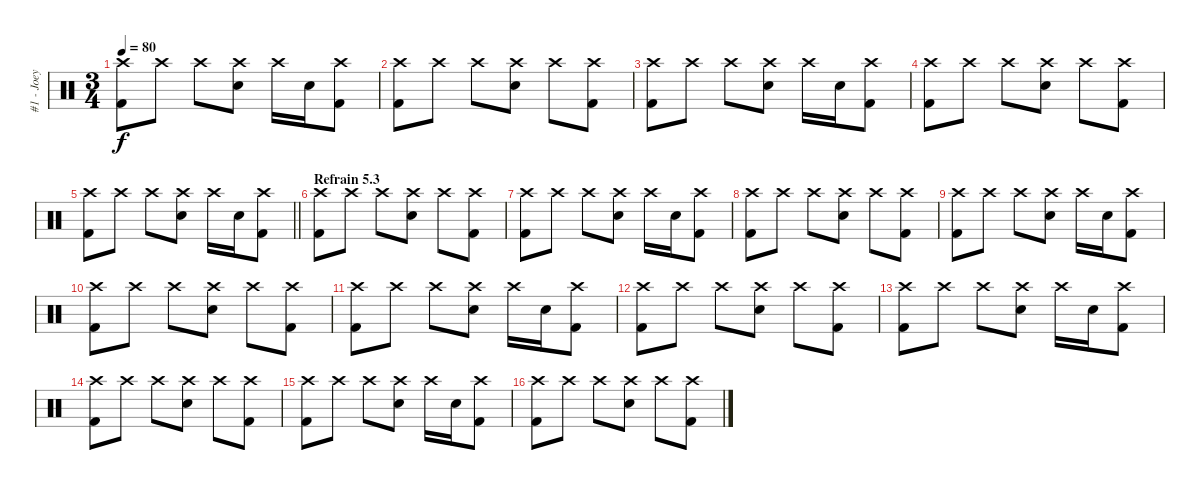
\track ("#1 - Joey Jordison" "#1 - Joey ") {instrument percussion}
\staff {score}
\articulation defaults
\ts (3 4)
\tempo 80
\clef neutral
\ks c
("Crash high (hit)" "Kick (hit) 2").8{dy f} "Crash high (hit)".8 "Crash high (hit)".8 ("Crash high (hit)" "Snare (hit) 2").8 "Crash high (hit)".16 "Snare (hit) 2".16 ("Crash high (hit)" "Kick (hit) 2").8 |
("Crash high (hit)" "Kick (hit) 2").8 "Crash high (hit)".8 "Crash high (hit)".8 ("Crash high (hit)" "Snare (hit) 2").8 "Crash high (hit)".8 ("Crash high (hit)" "Kick (hit) 2").8 |
("Crash high (hit)" "Kick (hit) 2").8 "Crash high (hit)".8 "Crash high (hit)".8 ("Crash high (hit)" "Snare (hit) 2").8 "Crash high (hit)".16 "Snare (hit) 2".16 ("Crash high (hit)" "Kick (hit) 2").8 |
("Crash high (hit)" "Kick (hit) 2").8 "Crash high (hit)".8 "Crash high (hit)".8 ("Crash high (hit)" "Snare (hit) 2").8 "Crash high (hit)".8 ("Crash high (hit)" "Kick (hit) 2").8 |
\barLineRight lightlight
("Crash high (hit)" "Kick (hit) 2").8 "Crash high (hit)".8 "Crash high (hit)".8 ("Crash high (hit)" "Snare (hit) 2").8 "Crash high (hit)".16 "Snare (hit) 2".16 ("Crash high (hit)" "Kick (hit) 2").8 |
\section ("" "Refrain 5.3")
("Crash high (hit)" "Kick (hit) 2").8 "Crash high (hit)".8 "Crash high (hit)".8 ("Crash high (hit)" "Snare (hit) 2").8 "Crash high (hit)".8 ("Crash high (hit)" "Kick (hit) 2").8 |
("Crash high (hit)" "Kick (hit) 2").8 "Crash high (hit)".8 "Crash high (hit)".8 ("Crash high (hit)" "Snare (hit) 2").8 "Crash high (hit)".16 "Snare (hit) 2".16 ("Crash high (hit)" "Kick (hit) 2").8 |
("Crash high (hit)" "Kick (hit) 2").8 "Crash high (hit)".8 "Crash high (hit)".8 ("Crash high (hit)" "Snare (hit) 2").8 "Crash high (hit)".8 ("Crash high (hit)" "Kick (hit) 2").8 |
("Crash high (hit)" "Kick (hit) 2").8 "Crash high (hit)".8 "Crash high (hit)".8 ("Crash high (hit)" "Snare (hit) 2").8 "Crash high (hit)".16 "Snare (hit) 2".16 ("Crash high (hit)" "Kick (hit) 2").8 |
("Crash high (hit)" "Kick (hit) 2").8 "Crash high (hit)".8 "Crash high (hit)".8 ("Crash high (hit)" "Snare (hit) 2").8 "Crash high (hit)".8 ("Crash high (hit)" "Kick (hit) 2").8 |
("Crash high (hit)" "Kick (hit) 2").8 "Crash high (hit)".8 "Crash high (hit)".8 ("Crash high (hit)" "Snare (hit) 2").8 "Crash high (hit)".16 "Snare (hit) 2".16 ("Crash high (hit)" "Kick (hit) 2").8 |
("Crash high (hit)" "Kick (hit) 2").8 "Crash high (hit)".8 "Crash high (hit)".8 ("Crash high (hit)" "Snare (hit) 2").8 "Crash high (hit)".8 ("Crash high (hit)" "Kick (hit) 2").8 |
("Crash high (hit)" "Kick (hit) 2").8 "Crash high (hit)".8 "Crash high (hit)".8 ("Crash high (hit)" "Snare (hit) 2").8 "Crash high (hit)".16 "Snare (hit) 2".16 ("Crash high (hit)" "Kick (hit) 2").8 |
("Crash high (hit)" "Kick (hit) 2").8 "Crash high (hit)".8 "Crash high (hit)".8 ("Crash high (hit)" "Snare (hit) 2").8 "Crash high (hit)".8 ("Crash high (hit)" "Kick (hit) 2").8 |
("Crash high (hit)" "Kick (hit) 2").8 "Crash high (hit)".8 "Crash high (hit)".8 ("Crash high (hit)" "Snare (hit) 2").8 "Crash high (hit)".16 "Snare (hit) 2".16 ("Crash high (hit)" "Kick (hit) 2").8 |
("Crash high (hit)" "Kick (hit) 2").8 "Crash high (hit)".8 "Crash high (hit)".8 ("Crash high (hit)" "Snare (hit) 2").8 "Crash high (hit)".8 ("Crash high (hit)" "Kick (hit) 2").8
